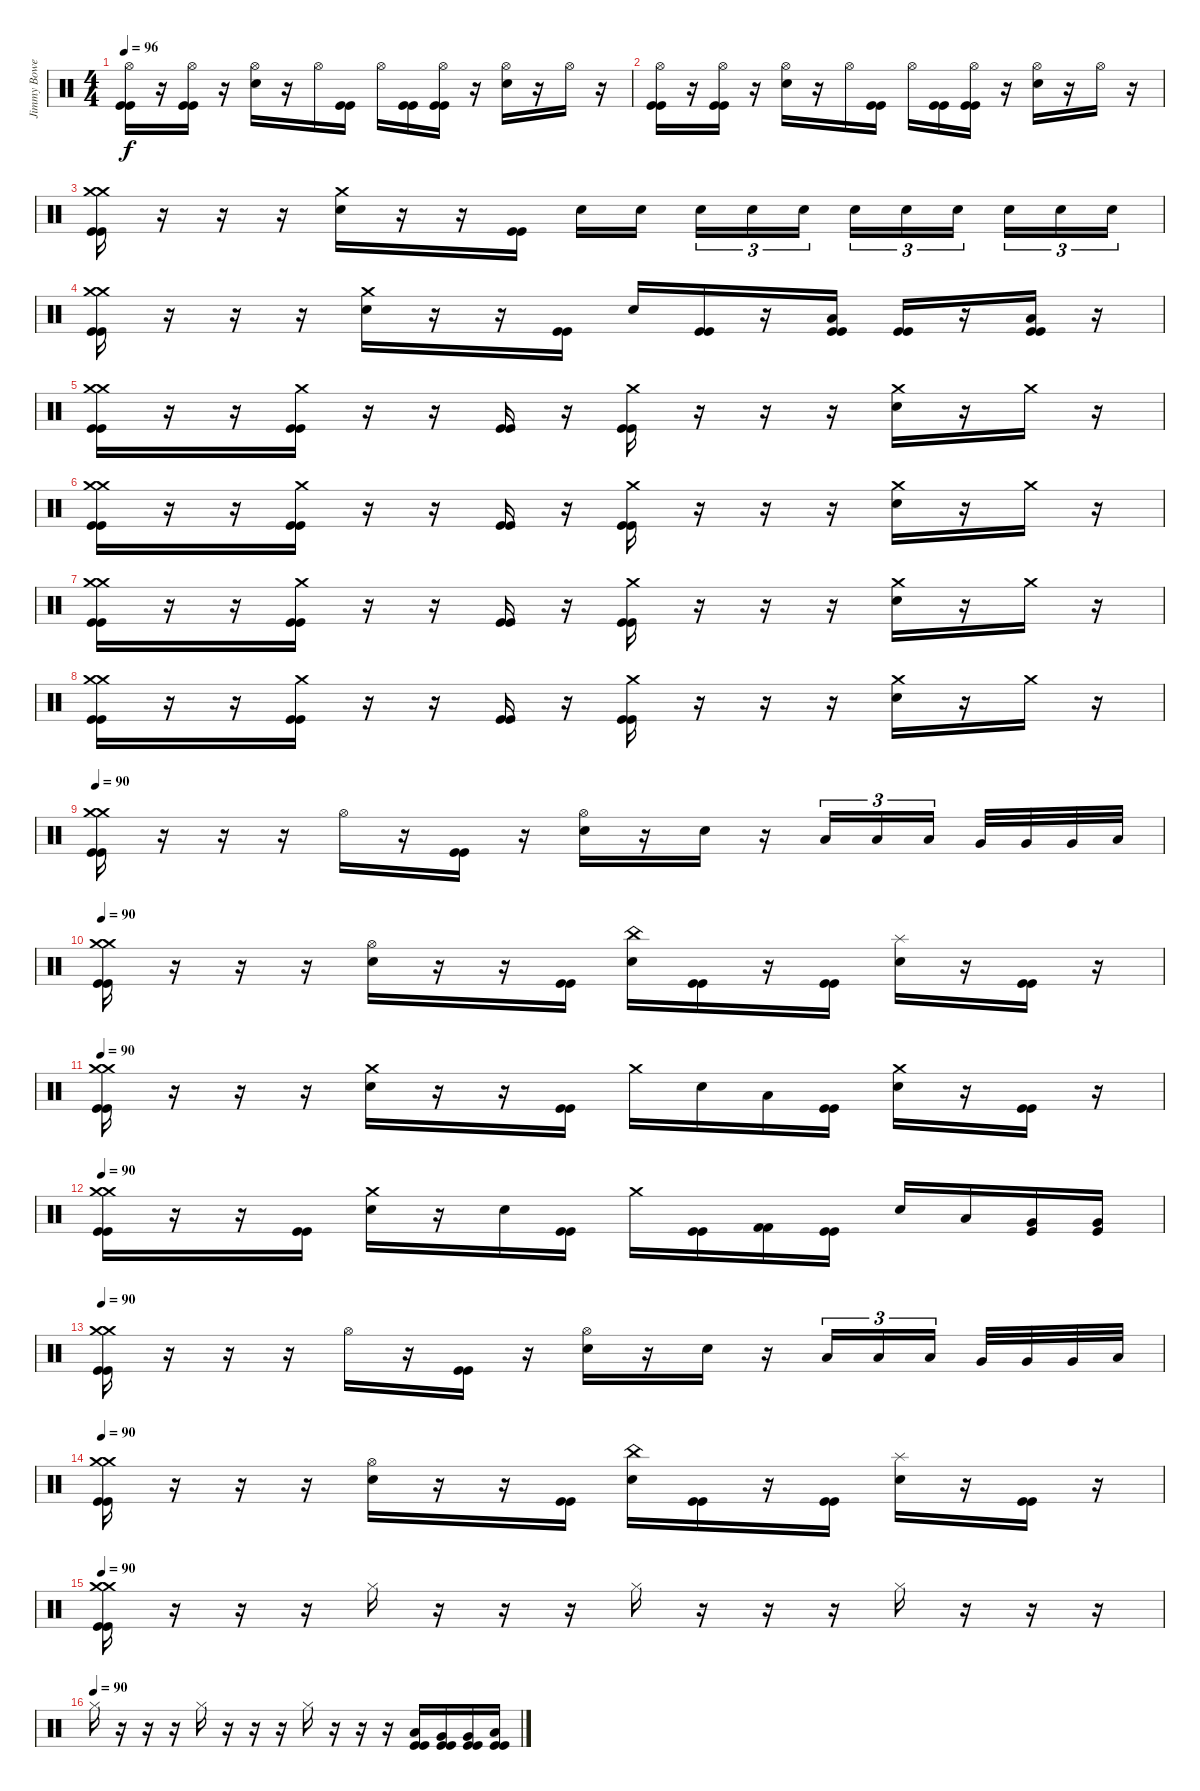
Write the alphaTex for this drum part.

\track ("Jimmy Bower" "Jimmy Bowe") {instrument percussion}
\staff {score}
\articulation defaults
\ts (4 4)
\tempo 96
\clef neutral
\ks c
("Hi-Hat (open)" "Kick (hit)" "Kick (hit)").16{dy f} r.16 ("Hi-Hat (open)" "Kick (hit)" "Kick (hit)").16 r.16 ("Hi-Hat (open)" "Snare (hit) 2").16 r.16 "Hi-Hat (open)".16 ("Kick (hit)" "Kick (hit)").16 "Hi-Hat (open)".16 ("Kick (hit)" "Kick (hit)").16 ("Hi-Hat (open)" "Kick (hit)" "Kick (hit)").16 r.16 ("Hi-Hat (open)" "Snare (hit) 2").16 r.16 "Hi-Hat (open)".16 r.16 |
("Hi-Hat (open)" "Kick (hit)" "Kick (hit)").16 r.16 ("Hi-Hat (open)" "Kick (hit)" "Kick (hit)").16 r.16 ("Hi-Hat (open)" "Snare (hit) 2").16 r.16 "Hi-Hat (open)".16 ("Kick (hit)" "Kick (hit)").16 "Hi-Hat (open)".16 ("Kick (hit)" "Kick (hit)").16 ("Hi-Hat (open)" "Kick (hit)" "Kick (hit)").16 r.16 ("Hi-Hat (open)" "Snare (hit) 2").16 r.16 "Hi-Hat (open)".16 r.16 |
("Crash medium (hit)" "Crash medium (hit)" "Kick (hit)" "Kick (hit)").16 r.16 r.16 r.16 ("Crash medium (hit)" "Snare (hit) 2").16 r.16 r.16 ("Kick (hit)" "Kick (hit)").16 "Snare (hit) 2".16 "Snare (hit) 2".16 "Snare (hit) 2".16{tu (3 2)} "Snare (hit) 2".16{tu (3 2)} "Snare (hit) 2".16{tu (3 2)} "Snare (hit) 2".16{tu (3 2)} "Snare (hit) 2".16{tu (3 2)} "Snare (hit) 2".16{tu (3 2)} "Snare (hit) 2".16{tu (3 2)} "Snare (hit) 2".16{tu (3 2)} "Snare (hit) 2".16{tu (3 2)} |
("Crash medium (hit)" "Crash medium (hit)" "Kick (hit)" "Kick (hit)").16 r.16 r.16 r.16 ("Crash medium (hit)" "Snare (hit) 2").16 r.16 r.16 ("Kick (hit)" "Kick (hit)").16 "Snare (hit) 2".16 ("Kick (hit)" "Kick (hit)").16 r.16 ("Low Tom (hit)" "Kick (hit)" "Kick (hit)").16 ("Kick (hit)" "Kick (hit)").16 r.16 ("Low Tom (hit)" "Kick (hit)" "Kick (hit)").16 r.16 |
("Crash medium (hit)" "Crash medium (hit)" "Kick (hit)" "Kick (hit)").16 r.16 r.16 ("Crash medium (hit)" "Kick (hit)" "Kick (hit)").16 r.16 r.16 ("Kick (hit)" "Kick (hit)").16 r.16 ("Crash medium (hit)" "Kick (hit)" "Kick (hit)").16 r.16 r.16 r.16 ("Crash medium (hit)" "Snare (hit) 2").16 r.16 "Crash medium (hit)".16 r.16 |
("Crash medium (hit)" "Crash medium (hit)" "Kick (hit)" "Kick (hit)").16 r.16 r.16 ("Crash medium (hit)" "Kick (hit)" "Kick (hit)").16 r.16 r.16 ("Kick (hit)" "Kick (hit)").16 r.16 ("Crash medium (hit)" "Kick (hit)" "Kick (hit)").16 r.16 r.16 r.16 ("Crash medium (hit)" "Snare (hit) 2").16 r.16 "Crash medium (hit)".16 r.16 |
("Crash medium (hit)" "Crash medium (hit)" "Kick (hit)" "Kick (hit)").16 r.16 r.16 ("Crash medium (hit)" "Kick (hit)" "Kick (hit)").16 r.16 r.16 ("Kick (hit)" "Kick (hit)").16 r.16 ("Crash medium (hit)" "Kick (hit)" "Kick (hit)").16 r.16 r.16 r.16 ("Crash medium (hit)" "Snare (hit) 2").16 r.16 "Crash medium (hit)".16 r.16 |
("Crash medium (hit)" "Crash medium (hit)" "Kick (hit)" "Kick (hit)").16 r.16 r.16 ("Crash medium (hit)" "Kick (hit)" "Kick (hit)").16 r.16 r.16 ("Kick (hit)" "Kick (hit)").16 r.16 ("Crash medium (hit)" "Kick (hit)" "Kick (hit)").16 r.16 r.16 r.16 ("Crash medium (hit)" "Snare (hit) 2").16 r.16 "Crash medium (hit)".16 r.16 |
\tempo 90
("Crash medium (hit)" "Crash medium (hit)" "Kick (hit)" "Kick (hit)").16 r.16 r.16 r.16 "Hi-Hat (open)".16 r.16 ("Kick (hit)" "Kick (hit)").16 r.16 ("Hi-Hat (open)" "Snare (hit) 2").16 r.16 "Snare (hit) 2".16 r.16 "Low Tom (hit)".16{tu (3 2)} "Low Tom (hit)".16{tu (3 2)} "Low Tom (hit)".16{tu (3 2)} "Very Low Tom (hit)".32 "Very Low Tom (hit)".32 "Very Low Tom (hit)".32 "Low Floor Tom (hit)".32 |
\tempo 90
("Crash medium (hit)" "Crash medium (hit)" "Kick (hit)" "Kick (hit)").16 r.16 r.16 r.16 ("Hi-Hat (open)" "Snare (hit) 2").16 r.16 r.16 ("Kick (hit)" "Kick (hit)").16 ("China (hit)" "Snare (hit) 2").16 ("Kick (hit)" "Kick (hit)").16 r.16 ("Kick (hit)" "Kick (hit)").16 ("Splash (hit)" "Snare (hit) 2").16 r.16 ("Kick (hit)" "Kick (hit)").16 r.16 |
\tempo 90
("Crash medium (hit)" "Crash medium (hit)" "Kick (hit)" "Kick (hit)").16 r.16 r.16 r.16 ("Crash medium (hit)" "Snare (hit) 2").16 r.16 r.16 ("Kick (hit)" "Kick (hit)").16 "Crash medium (hit)".16 "Snare (hit) 2".16 "Low Tom (hit)".16 ("Kick (hit)" "Kick (hit)").16 ("Crash medium (hit)" "Snare (hit) 2").16 r.16 ("Kick (hit)" "Kick (hit)").16 r.16 |
\tempo 90
("Crash medium (hit)" "Crash medium (hit)" "Kick (hit)" "Kick (hit)").16 r.16 r.16 ("Kick (hit)" "Kick (hit)").16 ("Crash medium (hit)" "Snare (hit) 2").16 r.16 "Snare (hit) 2".16 ("Kick (hit)" "Kick (hit)").16 "Crash medium (hit)".16 ("Kick (hit)" "Kick (hit)").16 ("Kick (hit) 2" "Kick (hit) 2").16 ("Kick (hit)" "Kick (hit)").16 "Snare (hit) 2".16 "Low Tom (hit)".16 ("Very Low Tom (hit)" "Kick (hit)").16 ("Very Low Tom (hit)" "Kick (hit)").16 |
\tempo 90
("Crash medium (hit)" "Crash medium (hit)" "Kick (hit)" "Kick (hit)").16 r.16 r.16 r.16 "Hi-Hat (open)".16 r.16 ("Kick (hit)" "Kick (hit)").16 r.16 ("Hi-Hat (open)" "Snare (hit) 2").16 r.16 "Snare (hit) 2".16 r.16 "Low Tom (hit)".16{tu (3 2)} "Low Tom (hit)".16{tu (3 2)} "Low Tom (hit)".16{tu (3 2)} "Very Low Tom (hit)".32 "Very Low Tom (hit)".32 "Very Low Tom (hit)".32 "Low Floor Tom (hit)".32 |
\tempo 90
("Crash medium (hit)" "Crash medium (hit)" "Kick (hit)" "Kick (hit)").16 r.16 r.16 r.16 ("Hi-Hat (open)" "Snare (hit) 2").16 r.16 r.16 ("Kick (hit)" "Kick (hit)").16 ("China (hit)" "Snare (hit) 2").16 ("Kick (hit)" "Kick (hit)").16 r.16 ("Kick (hit)" "Kick (hit)").16 ("Splash (hit)" "Snare (hit) 2").16 r.16 ("Kick (hit)" "Kick (hit)").16 r.16 |
\tempo 90
("Crash medium (hit)" "Crash medium (hit)" "Kick (hit)" "Kick (hit)").16 r.16 r.16 r.16 "Hi-Hat (closed)".16 r.16 r.16 r.16 "Hi-Hat (closed)".16 r.16 r.16 r.16 "Hi-Hat (closed)".16 r.16 r.16 r.16 |
\tempo (90)
"Hi-Hat (closed)".16 r.16 r.16 r.16 "Hi-Hat (closed)".16 r.16 r.16 r.16 "Hi-Hat (closed)".16 r.16 r.16 r.16 ("Low Tom (hit)" "Kick (hit)" "Kick (hit)").16 ("Very Low Tom (hit)" "Kick (hit)" "Kick (hit)").16 ("Very Low Tom (hit)" "Kick (hit)" "Kick (hit)").16 ("Low Floor Tom (hit)" "Kick (hit)" "Kick (hit)").16
